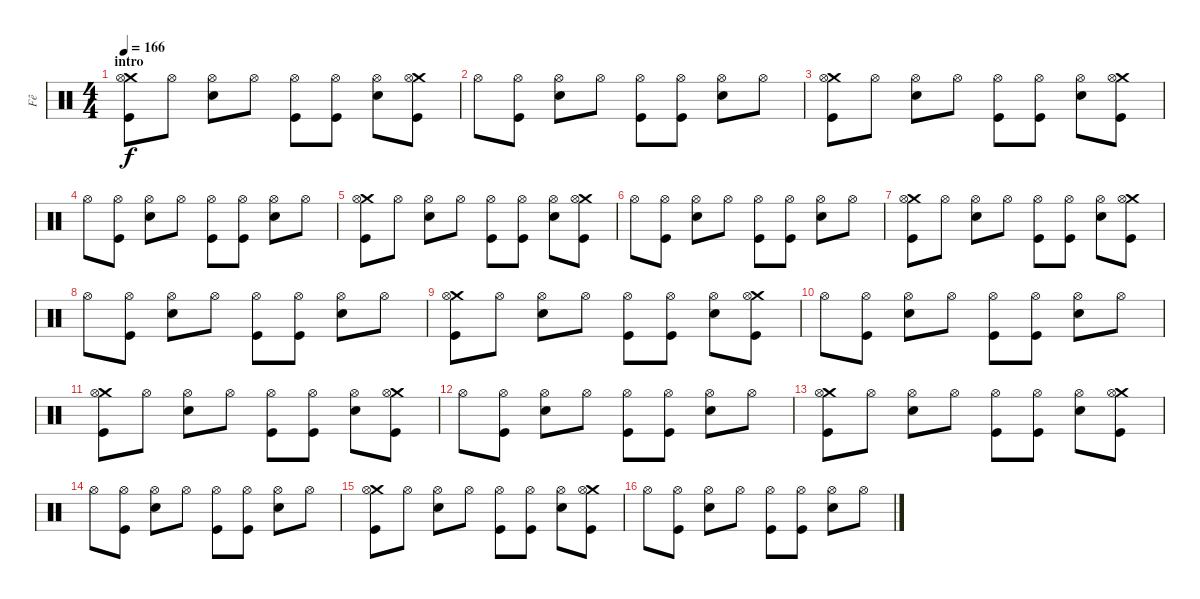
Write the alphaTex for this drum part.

\track ("Fê" "Fê") {instrument percussion}
\staff {score}
\articulation defaults
\ts (4 4)
\section ("" "intro")
\tempo 166
\clef neutral
\ks c
("Crash medium (hit)" "Hi-Hat (open)" "Kick (hit)").8{dy f} "Hi-Hat (open)".8 ("Hi-Hat (open)" "Electric Snare (hit)").8 "Hi-Hat (open)".8 ("Hi-Hat (open)" "Kick (hit)").8 ("Hi-Hat (open)" "Kick (hit)").8 ("Hi-Hat (open)" "Electric Snare (hit)").8 ("Crash medium (hit)" "Hi-Hat (open)" "Kick (hit)").8 |
"Hi-Hat (open)".8 ("Hi-Hat (open)" "Kick (hit)").8 ("Hi-Hat (open)" "Electric Snare (hit)").8 "Hi-Hat (open)".8 ("Hi-Hat (open)" "Kick (hit)").8 ("Hi-Hat (open)" "Kick (hit)").8 ("Hi-Hat (open)" "Electric Snare (hit)").8 "Hi-Hat (open)".8 |
("Crash medium (hit)" "Hi-Hat (open)" "Kick (hit)").8 "Hi-Hat (open)".8 ("Hi-Hat (open)" "Electric Snare (hit)").8 "Hi-Hat (open)".8 ("Hi-Hat (open)" "Kick (hit)").8 ("Hi-Hat (open)" "Kick (hit)").8 ("Hi-Hat (open)" "Electric Snare (hit)").8 ("Crash medium (hit)" "Hi-Hat (open)" "Kick (hit)").8 |
"Hi-Hat (open)".8 ("Hi-Hat (open)" "Kick (hit)").8 ("Hi-Hat (open)" "Electric Snare (hit)").8 "Hi-Hat (open)".8 ("Hi-Hat (open)" "Kick (hit)").8 ("Hi-Hat (open)" "Kick (hit)").8 ("Hi-Hat (open)" "Electric Snare (hit)").8 "Hi-Hat (open)".8 |
("Crash medium (hit)" "Hi-Hat (open)" "Kick (hit)").8 "Hi-Hat (open)".8 ("Hi-Hat (open)" "Electric Snare (hit)").8 "Hi-Hat (open)".8 ("Hi-Hat (open)" "Kick (hit)").8 ("Hi-Hat (open)" "Kick (hit)").8 ("Hi-Hat (open)" "Electric Snare (hit)").8 ("Crash medium (hit)" "Hi-Hat (open)" "Kick (hit)").8 |
"Hi-Hat (open)".8 ("Hi-Hat (open)" "Kick (hit)").8 ("Hi-Hat (open)" "Electric Snare (hit)").8 "Hi-Hat (open)".8 ("Hi-Hat (open)" "Kick (hit)").8 ("Hi-Hat (open)" "Kick (hit)").8 ("Hi-Hat (open)" "Electric Snare (hit)").8 "Hi-Hat (open)".8 |
("Crash medium (hit)" "Hi-Hat (open)" "Kick (hit)").8 "Hi-Hat (open)".8 ("Hi-Hat (open)" "Electric Snare (hit)").8 "Hi-Hat (open)".8 ("Hi-Hat (open)" "Kick (hit)").8 ("Hi-Hat (open)" "Kick (hit)").8 ("Hi-Hat (open)" "Electric Snare (hit)").8 ("Crash medium (hit)" "Hi-Hat (open)" "Kick (hit)").8 |
"Hi-Hat (open)".8 ("Hi-Hat (open)" "Kick (hit)").8 ("Hi-Hat (open)" "Electric Snare (hit)").8 "Hi-Hat (open)".8 ("Hi-Hat (open)" "Kick (hit)").8 ("Hi-Hat (open)" "Kick (hit)").8 ("Hi-Hat (open)" "Electric Snare (hit)").8 "Hi-Hat (open)".8 |
("Crash medium (hit)" "Hi-Hat (open)" "Kick (hit)").8 "Hi-Hat (open)".8 ("Hi-Hat (open)" "Electric Snare (hit)").8 "Hi-Hat (open)".8 ("Hi-Hat (open)" "Kick (hit)").8 ("Hi-Hat (open)" "Kick (hit)").8 ("Hi-Hat (open)" "Electric Snare (hit)").8 ("Crash medium (hit)" "Hi-Hat (open)" "Kick (hit)").8 |
"Hi-Hat (open)".8 ("Hi-Hat (open)" "Kick (hit)").8 ("Hi-Hat (open)" "Electric Snare (hit)").8 "Hi-Hat (open)".8 ("Hi-Hat (open)" "Kick (hit)").8 ("Hi-Hat (open)" "Kick (hit)").8 ("Hi-Hat (open)" "Electric Snare (hit)").8 "Hi-Hat (open)".8 |
("Crash medium (hit)" "Hi-Hat (open)" "Kick (hit)").8 "Hi-Hat (open)".8 ("Hi-Hat (open)" "Electric Snare (hit)").8 "Hi-Hat (open)".8 ("Hi-Hat (open)" "Kick (hit)").8 ("Hi-Hat (open)" "Kick (hit)").8 ("Hi-Hat (open)" "Electric Snare (hit)").8 ("Crash medium (hit)" "Hi-Hat (open)" "Kick (hit)").8 |
"Hi-Hat (open)".8 ("Hi-Hat (open)" "Kick (hit)").8 ("Hi-Hat (open)" "Electric Snare (hit)").8 "Hi-Hat (open)".8 ("Hi-Hat (open)" "Kick (hit)").8 ("Hi-Hat (open)" "Kick (hit)").8 ("Hi-Hat (open)" "Electric Snare (hit)").8 "Hi-Hat (open)".8 |
("Crash medium (hit)" "Hi-Hat (open)" "Kick (hit)").8 "Hi-Hat (open)".8 ("Hi-Hat (open)" "Electric Snare (hit)").8 "Hi-Hat (open)".8 ("Hi-Hat (open)" "Kick (hit)").8 ("Hi-Hat (open)" "Kick (hit)").8 ("Hi-Hat (open)" "Electric Snare (hit)").8 ("Crash medium (hit)" "Hi-Hat (open)" "Kick (hit)").8 |
"Hi-Hat (open)".8 ("Hi-Hat (open)" "Kick (hit)").8 ("Hi-Hat (open)" "Electric Snare (hit)").8 "Hi-Hat (open)".8 ("Hi-Hat (open)" "Kick (hit)").8 ("Hi-Hat (open)" "Kick (hit)").8 ("Hi-Hat (open)" "Electric Snare (hit)").8 "Hi-Hat (open)".8 |
("Crash medium (hit)" "Hi-Hat (open)" "Kick (hit)").8 "Hi-Hat (open)".8 ("Hi-Hat (open)" "Electric Snare (hit)").8 "Hi-Hat (open)".8 ("Hi-Hat (open)" "Kick (hit)").8 ("Hi-Hat (open)" "Kick (hit)").8 ("Hi-Hat (open)" "Electric Snare (hit)").8 ("Crash medium (hit)" "Hi-Hat (open)" "Kick (hit)").8 |
"Hi-Hat (open)".8 ("Hi-Hat (open)" "Kick (hit)").8 ("Hi-Hat (open)" "Electric Snare (hit)").8 "Hi-Hat (open)".8 ("Hi-Hat (open)" "Kick (hit)").8 ("Hi-Hat (open)" "Kick (hit)").8 ("Hi-Hat (open)" "Electric Snare (hit)").8 "Hi-Hat (open)".8
